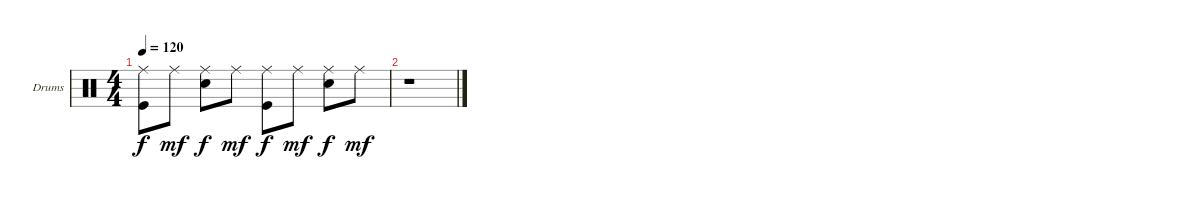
\bracketExtendMode groupsimilarinstruments
\firstSystemTrackNameOrientation horizontal
\otherSystemsTrackNameOrientation horizontal
\chordDiagramsInScore
\track ("Drumkit" "Drums") {instrument percussion}
\staff {score}
\articulation defaults
\ts (4 4)
\tempo 120
\clef neutral
\ks c
("Ride (middle)" "Kick (hit)").8{dy f} "Ride (middle)".8{dy mf} ("Ride (middle)" "Snare (hit) 2").8{dy f} "Ride (middle)".8{dy mf} ("Ride (middle)" "Kick (hit)").8{dy f} "Ride (middle)".8{dy mf} ("Ride (middle)" "Snare (hit) 2").8{dy f} "Ride (middle)".8{dy mf} |
r.1
